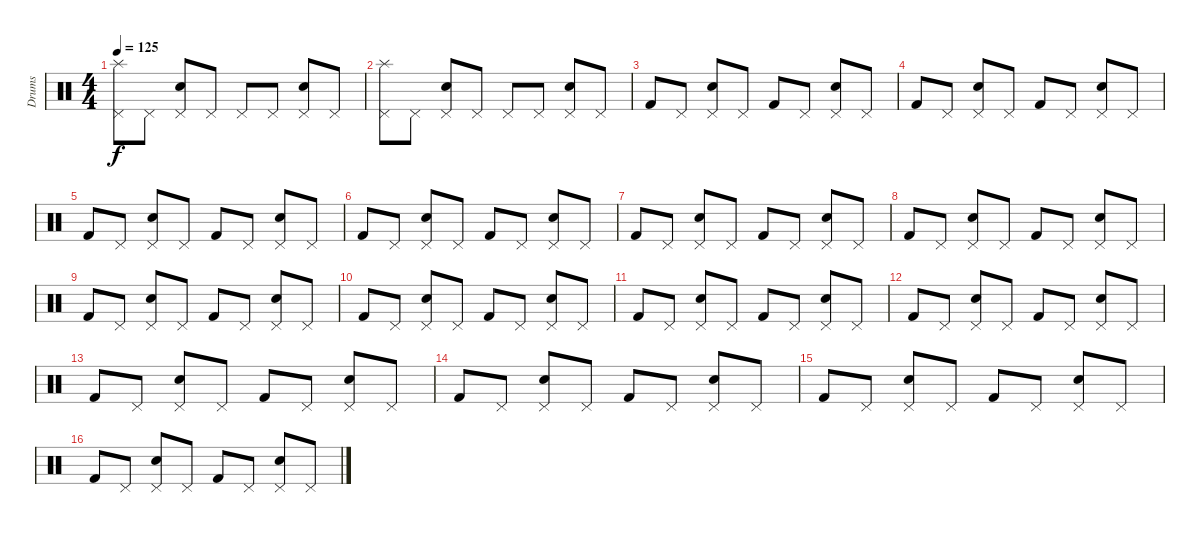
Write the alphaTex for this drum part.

\track ("Drums" "Drums") {instrument percussion}
\staff {score}
\articulation defaults
\ts (4 4)
\tempo 125
\clef neutral
\ks c
("Splash (hit)" "Pedal Hi-Hat (hit)").8{dy f} "Pedal Hi-Hat (hit)".8 ("Pedal Hi-Hat (hit)" "Electric Snare (hit)").8 "Pedal Hi-Hat (hit)".8 "Pedal Hi-Hat (hit)".8 "Pedal Hi-Hat (hit)".8 ("Pedal Hi-Hat (hit)" "Electric Snare (hit)").8 "Pedal Hi-Hat (hit)".8 |
("Splash (hit)" "Pedal Hi-Hat (hit)").8 "Pedal Hi-Hat (hit)".8 ("Pedal Hi-Hat (hit)" "Electric Snare (hit)").8 "Pedal Hi-Hat (hit)".8 "Pedal Hi-Hat (hit)".8 "Pedal Hi-Hat (hit)".8 ("Pedal Hi-Hat (hit)" "Electric Snare (hit)").8 "Pedal Hi-Hat (hit)".8 |
"Kick (hit) 2".8 "Pedal Hi-Hat (hit)".8 ("Pedal Hi-Hat (hit)" "Electric Snare (hit)").8 "Pedal Hi-Hat (hit)".8 "Kick (hit) 2".8 "Pedal Hi-Hat (hit)".8 ("Pedal Hi-Hat (hit)" "Electric Snare (hit)").8 "Pedal Hi-Hat (hit)".8 |
"Kick (hit) 2".8 "Pedal Hi-Hat (hit)".8 ("Pedal Hi-Hat (hit)" "Electric Snare (hit)").8 "Pedal Hi-Hat (hit)".8 "Kick (hit) 2".8 "Pedal Hi-Hat (hit)".8 ("Pedal Hi-Hat (hit)" "Electric Snare (hit)").8 "Pedal Hi-Hat (hit)".8 |
"Kick (hit) 2".8 "Pedal Hi-Hat (hit)".8 ("Pedal Hi-Hat (hit)" "Electric Snare (hit)").8 "Pedal Hi-Hat (hit)".8 "Kick (hit) 2".8 "Pedal Hi-Hat (hit)".8 ("Pedal Hi-Hat (hit)" "Electric Snare (hit)").8 "Pedal Hi-Hat (hit)".8 |
"Kick (hit) 2".8 "Pedal Hi-Hat (hit)".8 ("Pedal Hi-Hat (hit)" "Electric Snare (hit)").8 "Pedal Hi-Hat (hit)".8 "Kick (hit) 2".8 "Pedal Hi-Hat (hit)".8 ("Pedal Hi-Hat (hit)" "Electric Snare (hit)").8 "Pedal Hi-Hat (hit)".8 |
"Kick (hit) 2".8 "Pedal Hi-Hat (hit)".8 ("Pedal Hi-Hat (hit)" "Electric Snare (hit)").8 "Pedal Hi-Hat (hit)".8 "Kick (hit) 2".8 "Pedal Hi-Hat (hit)".8 ("Pedal Hi-Hat (hit)" "Electric Snare (hit)").8 "Pedal Hi-Hat (hit)".8 |
"Kick (hit) 2".8 "Pedal Hi-Hat (hit)".8 ("Pedal Hi-Hat (hit)" "Electric Snare (hit)").8 "Pedal Hi-Hat (hit)".8 "Kick (hit) 2".8 "Pedal Hi-Hat (hit)".8 ("Pedal Hi-Hat (hit)" "Electric Snare (hit)").8 "Pedal Hi-Hat (hit)".8 |
"Kick (hit) 2".8 "Pedal Hi-Hat (hit)".8 ("Pedal Hi-Hat (hit)" "Electric Snare (hit)").8 "Pedal Hi-Hat (hit)".8 "Kick (hit) 2".8 "Pedal Hi-Hat (hit)".8 ("Pedal Hi-Hat (hit)" "Electric Snare (hit)").8 "Pedal Hi-Hat (hit)".8 |
"Kick (hit) 2".8 "Pedal Hi-Hat (hit)".8 ("Pedal Hi-Hat (hit)" "Electric Snare (hit)").8 "Pedal Hi-Hat (hit)".8 "Kick (hit) 2".8 "Pedal Hi-Hat (hit)".8 ("Pedal Hi-Hat (hit)" "Electric Snare (hit)").8 "Pedal Hi-Hat (hit)".8 |
"Kick (hit) 2".8 "Pedal Hi-Hat (hit)".8 ("Pedal Hi-Hat (hit)" "Electric Snare (hit)").8 "Pedal Hi-Hat (hit)".8 "Kick (hit) 2".8 "Pedal Hi-Hat (hit)".8 ("Pedal Hi-Hat (hit)" "Electric Snare (hit)").8 "Pedal Hi-Hat (hit)".8 |
"Kick (hit) 2".8 "Pedal Hi-Hat (hit)".8 ("Pedal Hi-Hat (hit)" "Electric Snare (hit)").8 "Pedal Hi-Hat (hit)".8 "Kick (hit) 2".8 "Pedal Hi-Hat (hit)".8 ("Pedal Hi-Hat (hit)" "Electric Snare (hit)").8 "Pedal Hi-Hat (hit)".8 |
"Kick (hit) 2".8 "Pedal Hi-Hat (hit)".8 ("Pedal Hi-Hat (hit)" "Electric Snare (hit)").8 "Pedal Hi-Hat (hit)".8 "Kick (hit) 2".8 "Pedal Hi-Hat (hit)".8 ("Pedal Hi-Hat (hit)" "Electric Snare (hit)").8 "Pedal Hi-Hat (hit)".8 |
"Kick (hit) 2".8 "Pedal Hi-Hat (hit)".8 ("Pedal Hi-Hat (hit)" "Electric Snare (hit)").8 "Pedal Hi-Hat (hit)".8 "Kick (hit) 2".8 "Pedal Hi-Hat (hit)".8 ("Pedal Hi-Hat (hit)" "Electric Snare (hit)").8 "Pedal Hi-Hat (hit)".8 |
"Kick (hit) 2".8 "Pedal Hi-Hat (hit)".8 ("Pedal Hi-Hat (hit)" "Electric Snare (hit)").8 "Pedal Hi-Hat (hit)".8 "Kick (hit) 2".8 "Pedal Hi-Hat (hit)".8 ("Pedal Hi-Hat (hit)" "Electric Snare (hit)").8 "Pedal Hi-Hat (hit)".8 |
"Kick (hit) 2".8 "Pedal Hi-Hat (hit)".8 ("Pedal Hi-Hat (hit)" "Electric Snare (hit)").8 "Pedal Hi-Hat (hit)".8 "Kick (hit) 2".8 "Pedal Hi-Hat (hit)".8 ("Pedal Hi-Hat (hit)" "Electric Snare (hit)").8 "Pedal Hi-Hat (hit)".8
